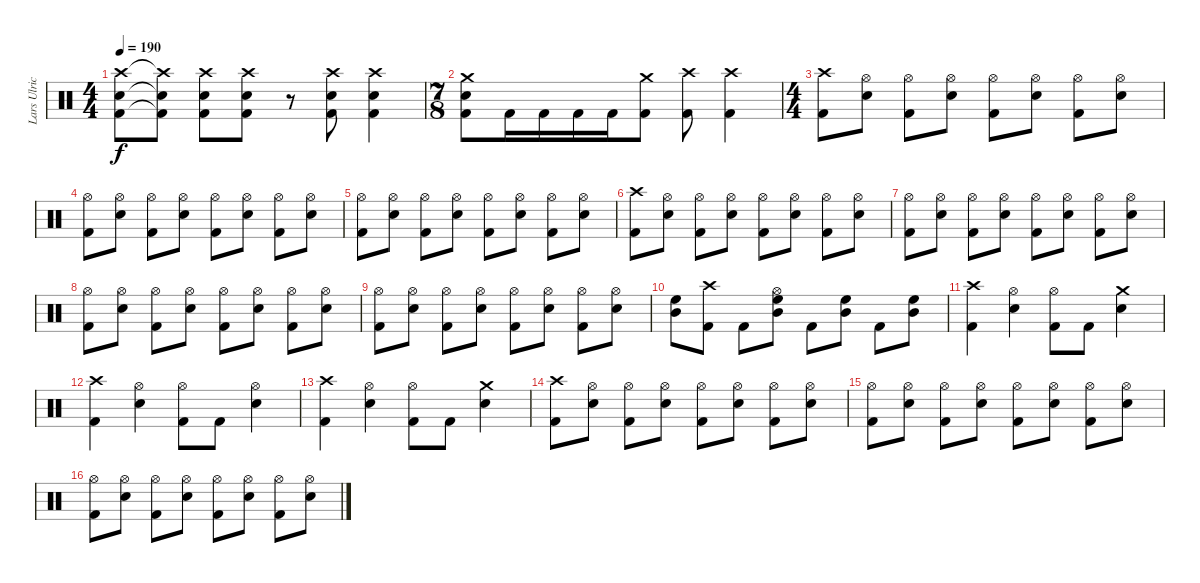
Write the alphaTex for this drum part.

\track ("Lars Ulrich" "Lars Ulric") {instrument percussion}
\staff {score}
\articulation defaults
\ts (4 4)
\tempo 190
\clef neutral
\ks c
("Crash high (hit)" "Snare (hit) 2" "Kick (hit) 2").8{dy f} ("Crash high (hit)"{t} "Snare (hit) 2"{t} "Kick (hit) 2"{t}).8 ("Crash high (hit)" "Snare (hit) 2" "Kick (hit) 2").8 ("Crash high (hit)" "Snare (hit) 2" "Kick (hit) 2").8 r.8 ("Crash high (hit)" "Snare (hit) 2" "Kick (hit) 2").8 ("Crash high (hit)" "Snare (hit) 2" "Kick (hit) 2").4 |
\ts (7 8)
("Crash medium (hit)" "Snare (hit) 2" "Kick (hit) 2").8 "Kick (hit) 2".16 "Kick (hit) 2".16 "Kick (hit) 2".16 "Kick (hit) 2".16 ("Crash medium (hit)" "Kick (hit) 2").8 ("Crash high (hit)" "Kick (hit) 2").8 ("Crash high (hit)" "Kick (hit) 2").4 |
\ts (4 4)
("Crash high (hit)" "Kick (hit) 2").8 ("Hi-Hat (open)" "Snare (hit) 2").8 ("Hi-Hat (open)" "Kick (hit) 2").8 ("Hi-Hat (open)" "Snare (hit) 2").8 ("Hi-Hat (open)" "Kick (hit) 2").8 ("Hi-Hat (open)" "Snare (hit) 2").8 ("Hi-Hat (open)" "Kick (hit) 2").8 ("Hi-Hat (open)" "Snare (hit) 2").8 |
("Hi-Hat (open)" "Kick (hit) 2").8 ("Hi-Hat (open)" "Snare (hit) 2").8 ("Hi-Hat (open)" "Kick (hit) 2").8 ("Hi-Hat (open)" "Snare (hit) 2").8 ("Hi-Hat (open)" "Kick (hit) 2").8 ("Hi-Hat (open)" "Snare (hit) 2").8 ("Hi-Hat (open)" "Kick (hit) 2").8 ("Hi-Hat (open)" "Snare (hit) 2").8 |
("Hi-Hat (open)" "Kick (hit) 2").8 ("Hi-Hat (open)" "Snare (hit) 2").8 ("Hi-Hat (open)" "Kick (hit) 2").8 ("Hi-Hat (open)" "Snare (hit) 2").8 ("Hi-Hat (open)" "Kick (hit) 2").8 ("Hi-Hat (open)" "Snare (hit) 2").8 ("Hi-Hat (open)" "Kick (hit) 2").8 ("Hi-Hat (open)" "Snare (hit) 2").8 |
("Crash high (hit)" "Kick (hit) 2").8 ("Hi-Hat (open)" "Snare (hit) 2").8 ("Hi-Hat (open)" "Kick (hit) 2").8 ("Hi-Hat (open)" "Snare (hit) 2").8 ("Hi-Hat (open)" "Kick (hit) 2").8 ("Hi-Hat (open)" "Snare (hit) 2").8 ("Hi-Hat (open)" "Kick (hit) 2").8 ("Hi-Hat (open)" "Snare (hit) 2").8 |
("Hi-Hat (open)" "Kick (hit) 2").8 ("Hi-Hat (open)" "Snare (hit) 2").8 ("Hi-Hat (open)" "Kick (hit) 2").8 ("Hi-Hat (open)" "Snare (hit) 2").8 ("Hi-Hat (open)" "Kick (hit) 2").8 ("Hi-Hat (open)" "Snare (hit) 2").8 ("Hi-Hat (open)" "Kick (hit) 2").8 ("Hi-Hat (open)" "Snare (hit) 2").8 |
("Hi-Hat (open)" "Kick (hit) 2").8 ("Hi-Hat (open)" "Snare (hit) 2").8 ("Hi-Hat (open)" "Kick (hit) 2").8 ("Hi-Hat (open)" "Snare (hit) 2").8 ("Hi-Hat (open)" "Kick (hit) 2").8 ("Hi-Hat (open)" "Snare (hit) 2").8 ("Hi-Hat (open)" "Kick (hit) 2").8 ("Hi-Hat (open)" "Snare (hit) 2").8 |
("Hi-Hat (open)" "Kick (hit) 2").8 ("Hi-Hat (open)" "Snare (hit) 2").8 ("Hi-Hat (open)" "Kick (hit) 2").8 ("Hi-Hat (open)" "Snare (hit) 2").8 ("Hi-Hat (open)" "Kick (hit) 2").8 ("Hi-Hat (open)" "Snare (hit) 2").8 ("Hi-Hat (open)" "Kick (hit) 2").8 ("Hi-Hat (open)" "Snare (hit) 2").8 |
("Mid Tom (hit)" "High Floor Tom (hit)").8 ("Crash high (hit)" "Kick (hit) 2").8 "Kick (hit) 2".8 ("Hi-Hat (open)" "Mid Tom (hit)" "High Floor Tom (hit)").8 "Kick (hit) 2".8 ("Mid Tom (hit)" "High Floor Tom (hit)").8 "Kick (hit) 2".8 ("Mid Tom (hit)" "High Floor Tom (hit)").8 |
("Crash high (hit)" "Kick (hit) 2").4 ("Hi-Hat (open)" "Snare (hit) 2").4 ("Hi-Hat (open)" "Kick (hit) 2").8 "Kick (hit) 2".8 ("Crash medium (hit)" "Snare (hit) 2").4 |
("Crash high (hit)" "Kick (hit) 2").4 ("Hi-Hat (open)" "Snare (hit) 2").4 ("Hi-Hat (open)" "Kick (hit) 2").8 "Kick (hit) 2".8 ("Hi-Hat (open)" "Snare (hit) 2").4 |
("Crash high (hit)" "Kick (hit) 2").4 ("Hi-Hat (open)" "Snare (hit) 2").4 ("Hi-Hat (open)" "Kick (hit) 2").8 "Kick (hit) 2".8 ("Crash medium (hit)" "Snare (hit) 2").4 |
("Crash high (hit)" "Kick (hit) 2").8 ("Hi-Hat (open)" "Snare (hit) 2").8 ("Hi-Hat (open)" "Kick (hit) 2").8 ("Hi-Hat (open)" "Snare (hit) 2").8 ("Hi-Hat (open)" "Kick (hit) 2").8 ("Hi-Hat (open)" "Snare (hit) 2").8 ("Hi-Hat (open)" "Kick (hit) 2").8 ("Hi-Hat (open)" "Snare (hit) 2").8 |
("Hi-Hat (open)" "Kick (hit) 2").8 ("Hi-Hat (open)" "Snare (hit) 2").8 ("Hi-Hat (open)" "Kick (hit) 2").8 ("Hi-Hat (open)" "Snare (hit) 2").8 ("Hi-Hat (open)" "Kick (hit) 2").8 ("Hi-Hat (open)" "Snare (hit) 2").8 ("Hi-Hat (open)" "Kick (hit) 2").8 ("Hi-Hat (open)" "Snare (hit) 2").8 |
("Hi-Hat (open)" "Kick (hit) 2").8 ("Hi-Hat (open)" "Snare (hit) 2").8 ("Hi-Hat (open)" "Kick (hit) 2").8 ("Hi-Hat (open)" "Snare (hit) 2").8 ("Hi-Hat (open)" "Kick (hit) 2").8 ("Hi-Hat (open)" "Snare (hit) 2").8 ("Hi-Hat (open)" "Kick (hit) 2").8 ("Hi-Hat (open)" "Snare (hit) 2").8
